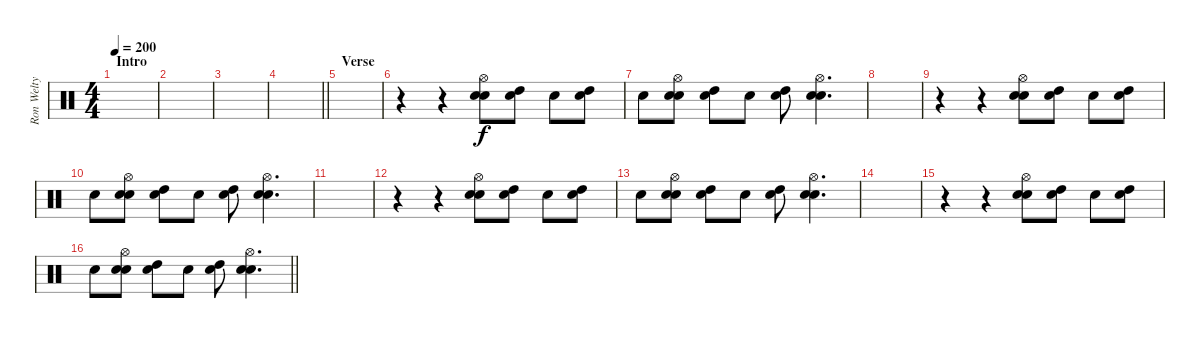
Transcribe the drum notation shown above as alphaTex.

\track ("Ron Welty" "Ron Welty") {instrument percussion}
\staff {score}
\articulation defaults
\ts (4 4)
\section ("" "Intro")
\tempo 200
\clef neutral
\ks c
|
|
|
\barLineRight lightlight
|
\section ("" "Verse")
|
r.4 r.4 ("Electric Snare (hit)" "Snare (hit) 2" "Hi-Hat (open)").8 ("Snare (hit) 2" "High Tom (hit)").8 "Snare (hit) 2".8 ("Snare (hit) 2" "High Tom (hit)").8 |
"Snare (hit) 2".8 ("Electric Snare (hit)" "Snare (hit) 2" "Hi-Hat (open)").8 ("Snare (hit) 2" "High Tom (hit)").8 "Snare (hit) 2".8 ("Snare (hit) 2" "High Tom (hit)").8 ("Electric Snare (hit)" "Snare (hit) 2" "Hi-Hat (open)").4{d} |
|
r.4 r.4 ("Electric Snare (hit)" "Snare (hit) 2" "Hi-Hat (open)").8 ("Snare (hit) 2" "High Tom (hit)").8 "Snare (hit) 2".8 ("Snare (hit) 2" "High Tom (hit)").8 |
"Snare (hit) 2".8 ("Electric Snare (hit)" "Snare (hit) 2" "Hi-Hat (open)").8 ("Snare (hit) 2" "High Tom (hit)").8 "Snare (hit) 2".8 ("Snare (hit) 2" "High Tom (hit)").8 ("Electric Snare (hit)" "Snare (hit) 2" "Hi-Hat (open)").4{d} |
|
r.4 r.4 ("Electric Snare (hit)" "Snare (hit) 2" "Hi-Hat (open)").8 ("Snare (hit) 2" "High Tom (hit)").8 "Snare (hit) 2".8 ("Snare (hit) 2" "High Tom (hit)").8 |
"Snare (hit) 2".8 ("Electric Snare (hit)" "Snare (hit) 2" "Hi-Hat (open)").8 ("Snare (hit) 2" "High Tom (hit)").8 "Snare (hit) 2".8 ("Snare (hit) 2" "High Tom (hit)").8 ("Electric Snare (hit)" "Snare (hit) 2" "Hi-Hat (open)").4{d} |
|
r.4 r.4 ("Electric Snare (hit)" "Snare (hit) 2" "Hi-Hat (open)").8 ("Snare (hit) 2" "High Tom (hit)").8 "Snare (hit) 2".8 ("Snare (hit) 2" "High Tom (hit)").8 |
\barLineRight lightlight "Snare (hit) 2".8
("Electric Snare (hit)" "Snare (hit) 2" "Hi-Hat (open)").8 ("Snare (hit) 2" "High Tom (hit)").8 "Snare (hit) 2".8 ("Snare (hit) 2" "High Tom (hit)").8 ("Electric Snare (hit)" "Snare (hit) 2" "Hi-Hat (open)").4{d}
